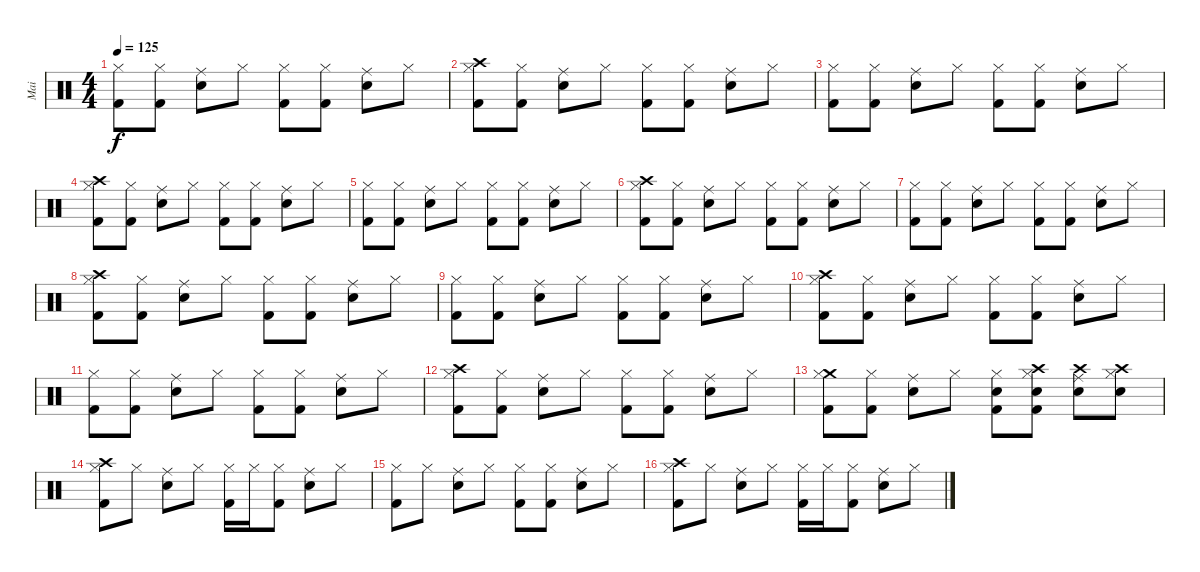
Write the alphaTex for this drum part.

\track ("Mai" "Mai") {instrument percussion}
\staff {score}
\articulation defaults
\ts (4 4)
\tempo 125
\clef neutral
\ks c
("Hi-Hat (closed)" "Kick (hit) 2").8{dy f} ("Hi-Hat (closed)" "Kick (hit) 2").8 ("Ride (middle)" "Snare (hit) 2").8 "Hi-Hat (closed)".8 ("Hi-Hat (closed)" "Kick (hit) 2").8 ("Hi-Hat (closed)" "Kick (hit) 2").8 ("Ride (middle)" "Snare (hit) 2").8 "Hi-Hat (closed)".8 |
("Kick (hit) 2" "Crash high (hit)" "Hi-Hat (closed)").8 ("Hi-Hat (closed)" "Kick (hit) 2").8 ("Ride (middle)" "Snare (hit) 2").8 "Hi-Hat (closed)".8 ("Hi-Hat (closed)" "Kick (hit) 2").8 ("Hi-Hat (closed)" "Kick (hit) 2").8 ("Ride (middle)" "Snare (hit) 2").8 "Hi-Hat (closed)".8 |
("Hi-Hat (closed)" "Kick (hit) 2").8 ("Hi-Hat (closed)" "Kick (hit) 2").8 ("Ride (middle)" "Snare (hit) 2").8 "Hi-Hat (closed)".8 ("Hi-Hat (closed)" "Kick (hit) 2").8 ("Hi-Hat (closed)" "Kick (hit) 2").8 ("Ride (middle)" "Snare (hit) 2").8 "Hi-Hat (closed)".8 |
("Kick (hit) 2" "Crash high (hit)" "Hi-Hat (closed)").8 ("Hi-Hat (closed)" "Kick (hit) 2").8 ("Ride (middle)" "Snare (hit) 2").8 "Hi-Hat (closed)".8 ("Hi-Hat (closed)" "Kick (hit) 2").8 ("Hi-Hat (closed)" "Kick (hit) 2").8 ("Ride (middle)" "Snare (hit) 2").8 "Hi-Hat (closed)".8 |
("Hi-Hat (closed)" "Kick (hit) 2").8 ("Hi-Hat (closed)" "Kick (hit) 2").8 ("Ride (middle)" "Snare (hit) 2").8 "Hi-Hat (closed)".8 ("Hi-Hat (closed)" "Kick (hit) 2").8 ("Hi-Hat (closed)" "Kick (hit) 2").8 ("Ride (middle)" "Snare (hit) 2").8 "Hi-Hat (closed)".8 |
("Kick (hit) 2" "Crash high (hit)" "Hi-Hat (closed)").8 ("Hi-Hat (closed)" "Kick (hit) 2").8 ("Ride (middle)" "Snare (hit) 2").8 "Hi-Hat (closed)".8 ("Hi-Hat (closed)" "Kick (hit) 2").8 ("Hi-Hat (closed)" "Kick (hit) 2").8 ("Ride (middle)" "Snare (hit) 2").8 "Hi-Hat (closed)".8 |
("Hi-Hat (closed)" "Kick (hit) 2").8 ("Hi-Hat (closed)" "Kick (hit) 2").8 ("Ride (middle)" "Snare (hit) 2").8 "Hi-Hat (closed)".8 ("Hi-Hat (closed)" "Kick (hit) 2").8 ("Hi-Hat (closed)" "Kick (hit) 2").8 ("Ride (middle)" "Snare (hit) 2").8 "Hi-Hat (closed)".8 |
("Kick (hit) 2" "Crash high (hit)" "Hi-Hat (closed)").8 ("Hi-Hat (closed)" "Kick (hit) 2").8 ("Ride (middle)" "Snare (hit) 2").8 "Hi-Hat (closed)".8 ("Hi-Hat (closed)" "Kick (hit) 2").8 ("Hi-Hat (closed)" "Kick (hit) 2").8 ("Ride (middle)" "Snare (hit) 2").8 "Hi-Hat (closed)".8 |
("Hi-Hat (closed)" "Kick (hit) 2").8 ("Hi-Hat (closed)" "Kick (hit) 2").8 ("Ride (middle)" "Snare (hit) 2").8 "Hi-Hat (closed)".8 ("Hi-Hat (closed)" "Kick (hit) 2").8 ("Hi-Hat (closed)" "Kick (hit) 2").8 ("Snare (hit) 2" "Ride (middle)").8 "Hi-Hat (closed)".8 |
("Kick (hit) 2" "Crash high (hit)" "Hi-Hat (closed)").8 ("Hi-Hat (closed)" "Kick (hit) 2").8 ("Ride (middle)" "Snare (hit) 2").8 "Hi-Hat (closed)".8 ("Hi-Hat (closed)" "Kick (hit) 2").8 ("Hi-Hat (closed)" "Kick (hit) 2").8 ("Ride (middle)" "Snare (hit) 2").8 "Hi-Hat (closed)".8 |
("Hi-Hat (closed)" "Kick (hit) 2").8 ("Hi-Hat (closed)" "Kick (hit) 2").8 ("Ride (middle)" "Snare (hit) 2").8 "Hi-Hat (closed)".8 ("Hi-Hat (closed)" "Kick (hit) 2").8 ("Hi-Hat (closed)" "Kick (hit) 2").8 ("Ride (middle)" "Snare (hit) 2").8 "Hi-Hat (closed)".8 |
("Kick (hit) 2" "Crash high (hit)" "Hi-Hat (closed)").8 ("Hi-Hat (closed)" "Kick (hit) 2").8 ("Ride (middle)" "Snare (hit) 2").8 "Hi-Hat (closed)".8 ("Hi-Hat (closed)" "Kick (hit) 2").8 ("Hi-Hat (closed)" "Kick (hit) 2").8 ("Ride (middle)" "Snare (hit) 2").8 "Hi-Hat (closed)".8 |
("Kick (hit) 2" "Crash medium (hit)" "Hi-Hat (closed)").8 ("Hi-Hat (closed)" "Kick (hit) 2").8 ("Ride (middle)" "Snare (hit) 2").8 "Hi-Hat (closed)".8 ("Kick (hit) 2" "Snare (hit) 2" "Hi-Hat (closed)").8 ("Snare (hit) 2" "Hi-Hat (closed)" "Crash high (hit)" "Kick (hit) 2").8 ("Snare (hit) 2" "Crash high (hit)" "Ride (middle)").8 ("Hi-Hat (closed)" "Crash high (hit)" "Snare (hit) 2").8 |
("Kick (hit) 2" "Crash high (hit)" "Hi-Hat (closed)").8 "Hi-Hat (closed)".8 ("Ride (middle)" "Snare (hit) 2").8 "Hi-Hat (closed)".8 ("Hi-Hat (closed)" "Kick (hit) 2").16 "Hi-Hat (closed)".16 ("Hi-Hat (closed)" "Kick (hit) 2").8 ("Ride (middle)" "Snare (hit) 2").8 "Hi-Hat (closed)".8 |
("Hi-Hat (closed)" "Kick (hit) 2").8 "Hi-Hat (closed)".8 ("Ride (middle)" "Snare (hit) 2").8 "Hi-Hat (closed)".8 ("Hi-Hat (closed)" "Kick (hit) 2").8 ("Hi-Hat (closed)" "Kick (hit) 2").8 ("Ride (middle)" "Snare (hit) 2").8 "Hi-Hat (closed)".8 |
("Kick (hit) 2" "Crash high (hit)" "Hi-Hat (closed)").8 "Hi-Hat (closed)".8 ("Ride (middle)" "Snare (hit) 2").8 "Hi-Hat (closed)".8 ("Hi-Hat (closed)" "Kick (hit) 2").16 "Hi-Hat (closed)".16 ("Hi-Hat (closed)" "Kick (hit) 2").8 ("Ride (middle)" "Snare (hit) 2").8 "Hi-Hat (closed)".8
